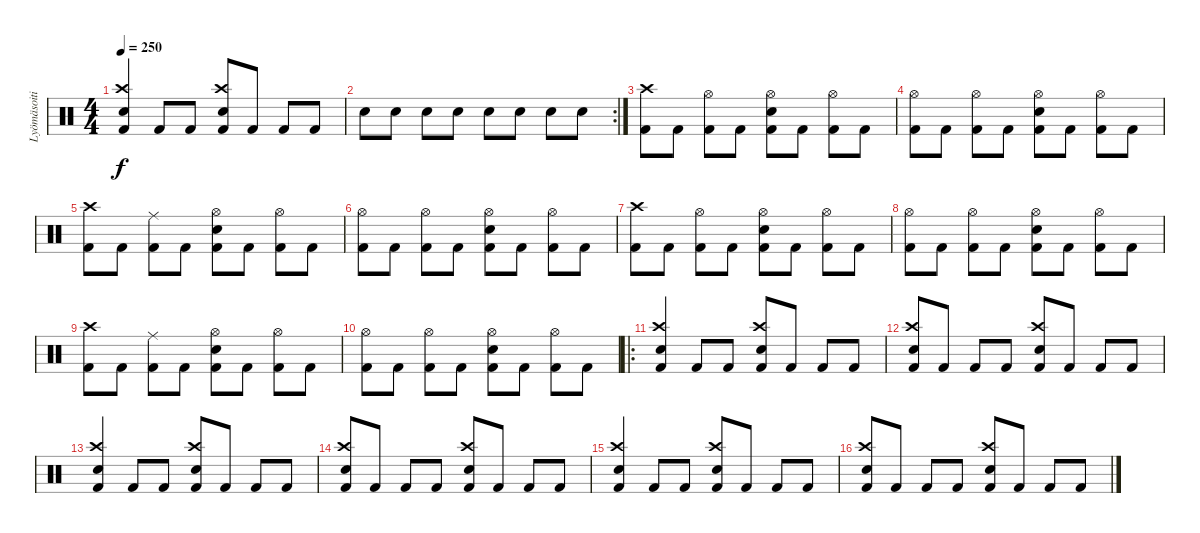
\track ("Lyömäsoitin" "Lyömäsoiti") {instrument percussion}
\staff {score}
\articulation defaults
\ts (4 4)
\tempo 250
\clef neutral
\ks c
("Electric Snare (hit)" "Crash high (hit)" "Kick (hit) 2").4{dy f} "Kick (hit) 2".8 "Kick (hit) 2".8 ("Crash high (hit)" "Electric Snare (hit)" "Kick (hit) 2").8 "Kick (hit) 2".8 "Kick (hit) 2".8 "Kick (hit) 2".8 |
\rc 2 "Electric Snare (hit)".8 "Electric Snare (hit)".8 "Electric Snare (hit)".8 "Electric Snare (hit)".8 "Electric Snare (hit)".8 "Electric Snare (hit)".8 "Electric Snare (hit)".8 "Electric Snare (hit)".8
|
("Crash high (hit)" "Kick (hit) 2").8 "Kick (hit) 2".8 ("Hi-Hat (open)" "Kick (hit) 2").8 "Kick (hit) 2".8 ("Hi-Hat (open)" "Electric Snare (hit)" "Kick (hit) 2").8 "Kick (hit) 2".8 ("Hi-Hat (open)" "Kick (hit) 2").8 "Kick (hit) 2".8 |
("Hi-Hat (open)" "Kick (hit) 2").8 "Kick (hit) 2".8 ("Hi-Hat (open)" "Kick (hit) 2").8 "Kick (hit) 2".8 ("Hi-Hat (open)" "Electric Snare (hit)" "Kick (hit) 2").8 "Kick (hit) 2".8 ("Hi-Hat (open)" "Kick (hit) 2").8 "Kick (hit) 2".8 |
("Crash high (hit)" "Kick (hit) 2").8 "Kick (hit) 2".8 ("Ride (middle)" "Kick (hit) 2").8 "Kick (hit) 2".8 ("Hi-Hat (open)" "Electric Snare (hit)" "Kick (hit) 2").8 "Kick (hit) 2".8 ("Hi-Hat (open)" "Kick (hit) 2").8 "Kick (hit) 2".8 |
("Hi-Hat (open)" "Kick (hit) 2").8 "Kick (hit) 2".8 ("Hi-Hat (open)" "Kick (hit) 2").8 "Kick (hit) 2".8 ("Hi-Hat (open)" "Electric Snare (hit)" "Kick (hit) 2").8 "Kick (hit) 2".8 ("Hi-Hat (open)" "Kick (hit) 2").8 "Kick (hit) 2".8 |
("Crash high (hit)" "Kick (hit) 2").8 "Kick (hit) 2".8 ("Hi-Hat (open)" "Kick (hit) 2").8 "Kick (hit) 2".8 ("Hi-Hat (open)" "Electric Snare (hit)" "Kick (hit) 2").8 "Kick (hit) 2".8 ("Hi-Hat (open)" "Kick (hit) 2").8 "Kick (hit) 2".8 |
("Hi-Hat (open)" "Kick (hit) 2").8 "Kick (hit) 2".8 ("Hi-Hat (open)" "Kick (hit) 2").8 "Kick (hit) 2".8 ("Hi-Hat (open)" "Electric Snare (hit)" "Kick (hit) 2").8 "Kick (hit) 2".8 ("Hi-Hat (open)" "Kick (hit) 2").8 "Kick (hit) 2".8 |
("Crash high (hit)" "Kick (hit) 2").8 "Kick (hit) 2".8 ("Ride (middle)" "Kick (hit) 2").8 "Kick (hit) 2".8 ("Hi-Hat (open)" "Electric Snare (hit)" "Kick (hit) 2").8 "Kick (hit) 2".8 ("Hi-Hat (open)" "Kick (hit) 2").8 "Kick (hit) 2".8 |
("Hi-Hat (open)" "Kick (hit) 2").8 "Kick (hit) 2".8 ("Hi-Hat (open)" "Kick (hit) 2").8 "Kick (hit) 2".8 ("Hi-Hat (open)" "Electric Snare (hit)" "Kick (hit) 2").8 "Kick (hit) 2".8 ("Hi-Hat (open)" "Kick (hit) 2").8 "Kick (hit) 2".8 |
\ro
("Electric Snare (hit)" "Crash high (hit)" "Kick (hit) 2").4 "Kick (hit) 2".8 "Kick (hit) 2".8 ("Crash high (hit)" "Electric Snare (hit)" "Kick (hit) 2").8 "Kick (hit) 2".8 "Kick (hit) 2".8 "Kick (hit) 2".8 |
("Electric Snare (hit)" "Crash high (hit)" "Kick (hit) 2").8 "Kick (hit) 2".8 "Kick (hit) 2".8 "Kick (hit) 2".8 ("Crash high (hit)" "Electric Snare (hit)" "Kick (hit) 2").8 "Kick (hit) 2".8 "Kick (hit) 2".8 "Kick (hit) 2".8 |
("Electric Snare (hit)" "Crash high (hit)" "Kick (hit) 2").4 "Kick (hit) 2".8 "Kick (hit) 2".8 ("Crash high (hit)" "Electric Snare (hit)" "Kick (hit) 2").8 "Kick (hit) 2".8 "Kick (hit) 2".8 "Kick (hit) 2".8 |
("Electric Snare (hit)" "Crash high (hit)" "Kick (hit) 2").8 "Kick (hit) 2".8 "Kick (hit) 2".8 "Kick (hit) 2".8 ("Crash high (hit)" "Electric Snare (hit)" "Kick (hit) 2").8 "Kick (hit) 2".8 "Kick (hit) 2".8 "Kick (hit) 2".8 |
("Electric Snare (hit)" "Crash high (hit)" "Kick (hit) 2").4 "Kick (hit) 2".8 "Kick (hit) 2".8 ("Crash high (hit)" "Electric Snare (hit)" "Kick (hit) 2").8 "Kick (hit) 2".8 "Kick (hit) 2".8 "Kick (hit) 2".8 |
("Electric Snare (hit)" "Crash high (hit)" "Kick (hit) 2").8 "Kick (hit) 2".8 "Kick (hit) 2".8 "Kick (hit) 2".8 ("Crash high (hit)" "Electric Snare (hit)" "Kick (hit) 2").8 "Kick (hit) 2".8 "Kick (hit) 2".8 "Kick (hit) 2".8
